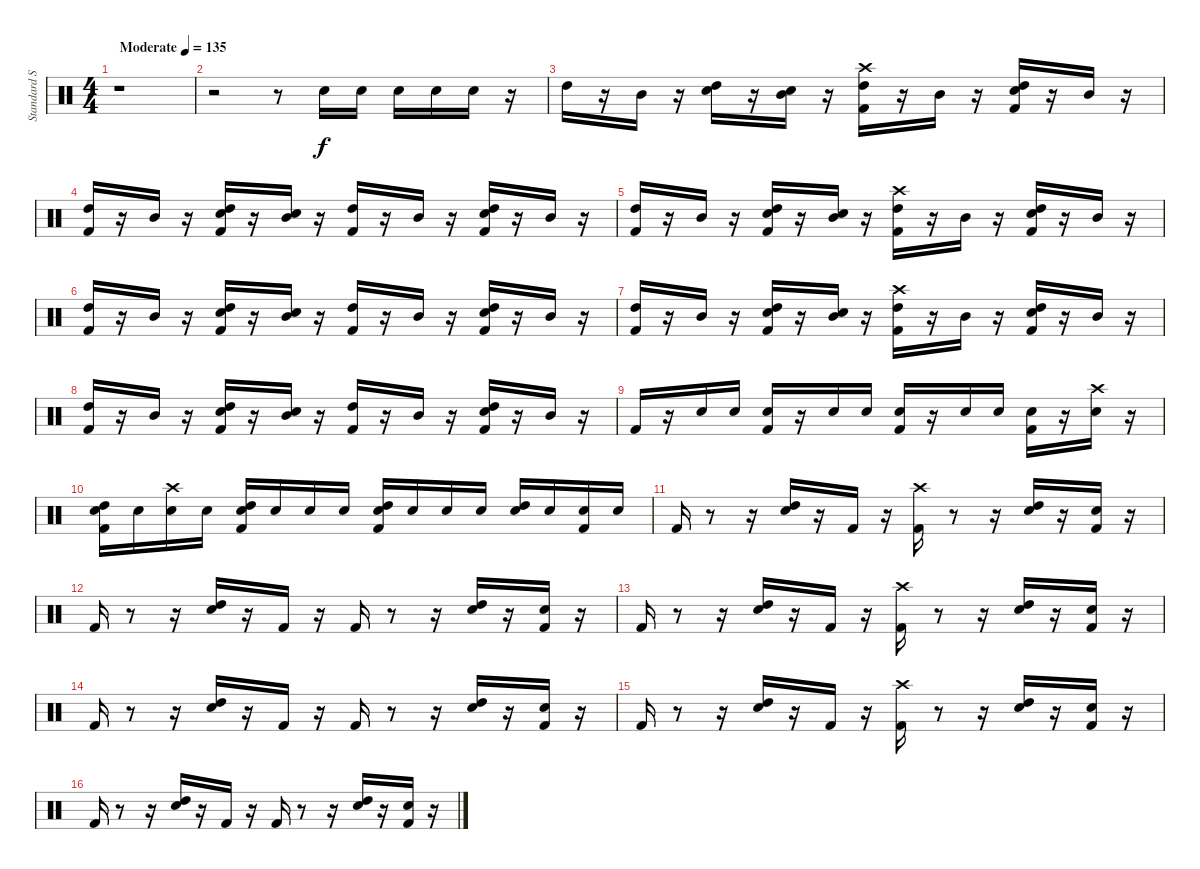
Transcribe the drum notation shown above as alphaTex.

\track ("Standard Set 1" "Standard S") {instrument percussion}
\staff {score}
\articulation defaults
\ts (4 4)
\tempo (135 "Moderate")
\clef neutral
\ks c
r.1{dy f} |
r.2 r.8 "Snare (hit) 2".16 "Snare (hit) 2".16 "Snare (hit) 2".16 "Snare (hit) 2".16 "Snare (hit) 2".16 r.16 |
"High Tom (hit)".16 r.16 "Mid Tom (hit)".16 r.16 ("Snare (hit) 2" "High Tom (hit)").16 r.16 ("Snare (hit) 2" "Mid Tom (hit)").16 r.16 ("High Tom (hit)" "Kick (hit) 2" "Crash high (hit)").16 r.16 "Mid Tom (hit)".16 r.16 ("Snare (hit) 2" "High Tom (hit)" "Kick (hit) 2").16 r.16 "Mid Tom (hit)".16 r.16 |
("High Tom (hit)" "Kick (hit) 2").16 r.16 "Mid Tom (hit)".16 r.16 ("Snare (hit) 2" "High Tom (hit)" "Kick (hit) 2").16 r.16 ("Snare (hit) 2" "Mid Tom (hit)").16 r.16 ("High Tom (hit)" "Kick (hit) 2").16 r.16 "Mid Tom (hit)".16 r.16 ("Snare (hit) 2" "High Tom (hit)" "Kick (hit) 2").16 r.16 "Mid Tom (hit)".16 r.16 |
("High Tom (hit)" "Kick (hit) 2").16 r.16 "Mid Tom (hit)".16 r.16 ("Snare (hit) 2" "High Tom (hit)" "Kick (hit) 2").16 r.16 ("Snare (hit) 2" "Mid Tom (hit)").16 r.16 ("High Tom (hit)" "Kick (hit) 2" "Crash high (hit)").16 r.16 "Mid Tom (hit)".16 r.16 ("Snare (hit) 2" "High Tom (hit)" "Kick (hit) 2").16 r.16 "Mid Tom (hit)".16 r.16 |
("High Tom (hit)" "Kick (hit) 2").16 r.16 "Mid Tom (hit)".16 r.16 ("Snare (hit) 2" "High Tom (hit)" "Kick (hit) 2").16 r.16 ("Snare (hit) 2" "Mid Tom (hit)").16 r.16 ("High Tom (hit)" "Kick (hit) 2").16 r.16 "Mid Tom (hit)".16 r.16 ("Snare (hit) 2" "High Tom (hit)" "Kick (hit) 2").16 r.16 "Mid Tom (hit)".16 r.16 |
("High Tom (hit)" "Kick (hit) 2").16 r.16 "Mid Tom (hit)".16 r.16 ("Snare (hit) 2" "High Tom (hit)" "Kick (hit) 2").16 r.16 ("Snare (hit) 2" "Mid Tom (hit)").16 r.16 ("High Tom (hit)" "Kick (hit) 2" "Crash high (hit)").16 r.16 "Mid Tom (hit)".16 r.16 ("Snare (hit) 2" "High Tom (hit)" "Kick (hit) 2").16 r.16 "Mid Tom (hit)".16 r.16 |
("High Tom (hit)" "Kick (hit) 2").16 r.16 "Mid Tom (hit)".16 r.16 ("Snare (hit) 2" "High Tom (hit)" "Kick (hit) 2").16 r.16 ("Snare (hit) 2" "Mid Tom (hit)").16 r.16 ("High Tom (hit)" "Kick (hit) 2").16 r.16 "Mid Tom (hit)".16 r.16 ("Snare (hit) 2" "High Tom (hit)" "Kick (hit) 2").16 r.16 "Mid Tom (hit)".16 r.16 |
"Kick (hit) 2".16 r.16 "Snare (hit) 2".16 "Snare (hit) 2".16 ("Snare (hit) 2" "Kick (hit) 2").16 r.16 "Snare (hit) 2".16 "Snare (hit) 2".16 ("Snare (hit) 2" "Kick (hit) 2").16 r.16 "Snare (hit) 2".16 "Snare (hit) 2".16 ("Snare (hit) 2" "Kick (hit) 2").16 r.16 ("Snare (hit) 2" "Crash high (hit)").16 r.16 |
("Snare (hit) 2" "High Tom (hit)" "Kick (hit) 2").16 "Snare (hit) 2".16 ("Snare (hit) 2" "Crash high (hit)").16 "Snare (hit) 2".16 ("Snare (hit) 2" "High Tom (hit)" "Kick (hit) 2").16 "Snare (hit) 2".16 "Snare (hit) 2".16 "Snare (hit) 2".16 ("Snare (hit) 2" "High Tom (hit)" "Kick (hit) 2").16 "Snare (hit) 2".16 "Snare (hit) 2".16 "Snare (hit) 2".16 ("Snare (hit) 2" "High Tom (hit)").16 "Snare (hit) 2".16 ("Snare (hit) 2" "Kick (hit) 2").16 "Snare (hit) 2".16 |
"Kick (hit) 2".16 r.8 r.16 ("Snare (hit) 2" "High Tom (hit)").16 r.16 "Kick (hit) 2".16 r.16 ("Kick (hit) 2" "Crash high (hit)").16 r.8 r.16 ("Snare (hit) 2" "High Tom (hit)").16 r.16 ("Snare (hit) 2" "Kick (hit) 2").16 r.16 |
"Kick (hit) 2".16 r.8 r.16 ("Snare (hit) 2" "High Tom (hit)").16 r.16 "Kick (hit) 2".16 r.16 "Kick (hit) 2".16 r.8 r.16 ("Snare (hit) 2" "High Tom (hit)").16 r.16 ("Snare (hit) 2" "Kick (hit) 2").16 r.16 |
"Kick (hit) 2".16 r.8 r.16 ("Snare (hit) 2" "High Tom (hit)").16 r.16 "Kick (hit) 2".16 r.16 ("Kick (hit) 2" "Crash high (hit)").16 r.8 r.16 ("Snare (hit) 2" "High Tom (hit)").16 r.16 ("Snare (hit) 2" "Kick (hit) 2").16 r.16 |
"Kick (hit) 2".16 r.8 r.16 ("Snare (hit) 2" "High Tom (hit)").16 r.16 "Kick (hit) 2".16 r.16 "Kick (hit) 2".16 r.8 r.16 ("Snare (hit) 2" "High Tom (hit)").16 r.16 ("Snare (hit) 2" "Kick (hit) 2").16 r.16 |
"Kick (hit) 2".16 r.8 r.16 ("Snare (hit) 2" "High Tom (hit)").16 r.16 "Kick (hit) 2".16 r.16 ("Kick (hit) 2" "Crash high (hit)").16 r.8 r.16 ("Snare (hit) 2" "High Tom (hit)").16 r.16 ("Snare (hit) 2" "Kick (hit) 2").16 r.16 |
"Kick (hit) 2".16 r.8 r.16 ("Snare (hit) 2" "High Tom (hit)").16 r.16 "Kick (hit) 2".16 r.16 "Kick (hit) 2".16 r.8 r.16 ("Snare (hit) 2" "High Tom (hit)").16 r.16 ("Snare (hit) 2" "Kick (hit) 2").16 r.16
